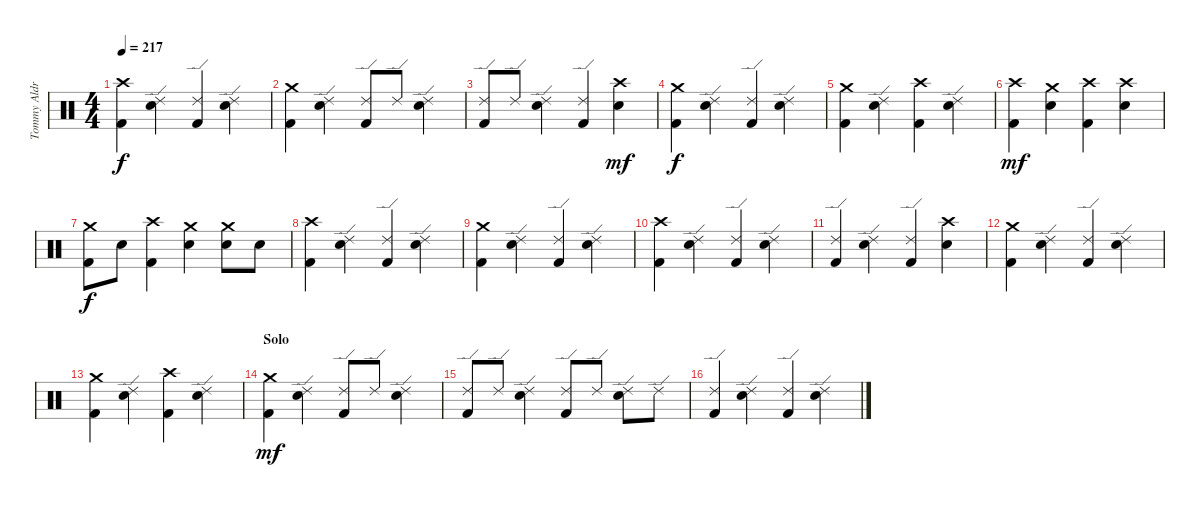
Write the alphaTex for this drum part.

\track ("Tommy Aldridge" "Tommy Aldr") {instrument percussion}
\staff {score}
\articulation defaults
\ts (4 4)
\tempo 217
\clef neutral
\ks c
("Kick (hit) 2" "Crash high (hit)").4{dy f} ("Ride (edge) 2" "Snare (hit) 2").4 ("Kick (hit) 2" "Ride (edge) 2").4 ("Ride (edge) 2" "Snare (hit) 2").4 |
("Kick (hit) 2" "Crash medium (hit)").4 ("Ride (edge) 2" "Snare (hit) 2").4 ("Kick (hit) 2" "Ride (edge) 2").8 "Ride (edge) 2".8 ("Ride (edge) 2" "Snare (hit) 2").4 |
("Kick (hit) 2" "Ride (edge) 2").8 "Ride (edge) 2".8 ("Ride (edge) 2" "Snare (hit) 2").4 ("Kick (hit) 2" "Ride (edge) 2").4 ("Crash high (hit)" "Snare (hit) 2").4{dy mf} |
("Kick (hit) 2" "Crash medium (hit)").4{dy f} ("Ride (edge) 2" "Snare (hit) 2").4 ("Kick (hit) 2" "Ride (edge) 2").4 ("Ride (edge) 2" "Snare (hit) 2").4 |
("Kick (hit) 2" "Crash medium (hit)").4 ("Ride (edge) 2" "Snare (hit) 2").4 ("Kick (hit) 2" "Crash high (hit)").4 ("Ride (edge) 2" "Snare (hit) 2").4 |
("Kick (hit) 2" "Crash high (hit)").4{dy mf} ("Crash medium (hit)" "Snare (hit) 2").4 ("Kick (hit) 2" "Crash high (hit)").4 ("Crash high (hit)" "Snare (hit) 2").4 |
("Kick (hit) 2" "Crash medium (hit)").8{dy f} "Snare (hit) 2".8 ("Kick (hit) 2" "Crash high (hit)").4 ("Crash medium (hit)" "Snare (hit) 2").4 ("Crash medium (hit)" "Snare (hit) 2").8 "Snare (hit) 2".8 |
("Kick (hit) 2" "Crash high (hit)").4 ("Ride (edge) 2" "Snare (hit) 2").4 ("Kick (hit) 2" "Ride (edge) 2").4 ("Ride (edge) 2" "Snare (hit) 2").4 |
("Kick (hit) 2" "Crash medium (hit)").4 ("Ride (edge) 2" "Snare (hit) 2").4 ("Kick (hit) 2" "Ride (edge) 2").4 ("Ride (edge) 2" "Snare (hit) 2").4 |
("Kick (hit) 2" "Crash high (hit)").4 ("Ride (edge) 2" "Snare (hit) 2").4 ("Kick (hit) 2" "Ride (edge) 2").4 ("Ride (edge) 2" "Snare (hit) 2").4 |
("Kick (hit) 2" "Ride (edge) 2").4 ("Ride (edge) 2" "Snare (hit) 2").4 ("Kick (hit) 2" "Ride (edge) 2").4 ("Crash high (hit)" "Snare (hit) 2").4 |
("Kick (hit) 2" "Crash medium (hit)").4 ("Ride (edge) 2" "Snare (hit) 2").4 ("Kick (hit) 2" "Ride (edge) 2").4 ("Ride (edge) 2" "Snare (hit) 2").4 |
("Kick (hit) 2" "Crash medium (hit)").4 ("Ride (edge) 2" "Snare (hit) 2").4 ("Kick (hit) 2" "Crash high (hit)").4 ("Ride (edge) 2" "Snare (hit) 2").4 |
\section ("" "Solo")
("Kick (hit) 2" "Crash medium (hit)").4{dy mf} ("Ride (edge) 2" "Snare (hit) 2").4 ("Kick (hit) 2" "Ride (edge) 2").8 "Ride (edge) 2".8 ("Ride (edge) 2" "Snare (hit) 2").4 |
("Kick (hit) 2" "Ride (edge) 2").8 "Ride (edge) 2".8 ("Ride (edge) 2" "Snare (hit) 2").4 ("Kick (hit) 2" "Ride (edge) 2").8 "Ride (edge) 2".8 ("Ride (edge) 2" "Snare (hit) 2").8 "Ride (edge) 2".8 |
("Kick (hit) 2" "Ride (edge) 2").4 ("Ride (edge) 2" "Snare (hit) 2").4 ("Kick (hit) 2" "Ride (edge) 2").4 ("Ride (edge) 2" "Snare (hit) 2").4
